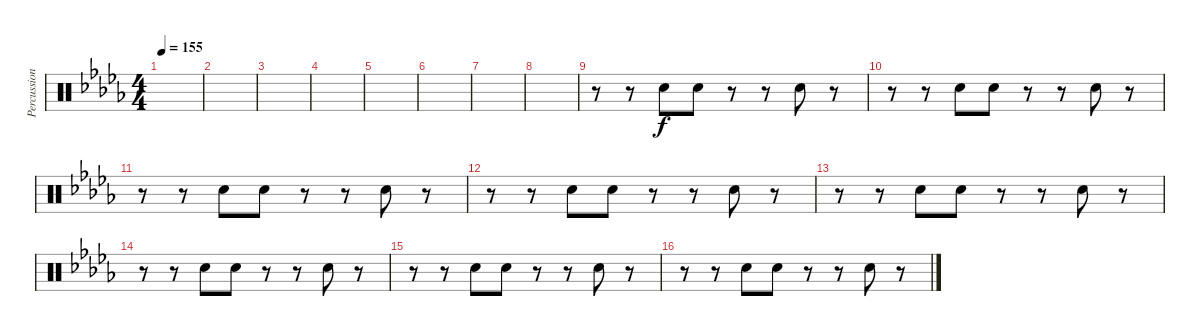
\track ("Percussions" "Percussion") {instrument percussion}
\staff {score}
\articulation defaults
\ts (4 4)
\tempo 155
\clef neutral
\ks db
|
|
|
|
|
|
|
|
r.8 r.8 "Hand Clap (hit)".8 "Hand Clap (hit)".8 r.8 r.8 "Hand Clap (hit)".8 r.8 |
r.8 r.8 "Hand Clap (hit)".8 "Hand Clap (hit)".8 r.8 r.8 "Hand Clap (hit)".8 r.8 |
r.8 r.8 "Hand Clap (hit)".8 "Hand Clap (hit)".8 r.8 r.8 "Hand Clap (hit)".8 r.8 |
r.8 r.8 "Hand Clap (hit)".8 "Hand Clap (hit)".8 r.8 r.8 "Hand Clap (hit)".8 r.8 |
r.8 r.8 "Hand Clap (hit)".8 "Hand Clap (hit)".8 r.8 r.8 "Hand Clap (hit)".8 r.8 |
r.8 r.8 "Hand Clap (hit)".8 "Hand Clap (hit)".8 r.8 r.8 "Hand Clap (hit)".8 r.8 |
r.8 r.8 "Hand Clap (hit)".8 "Hand Clap (hit)".8 r.8 r.8 "Hand Clap (hit)".8 r.8 |
r.8 r.8 "Hand Clap (hit)".8 "Hand Clap (hit)".8 r.8 r.8 "Hand Clap (hit)".8 r.8
